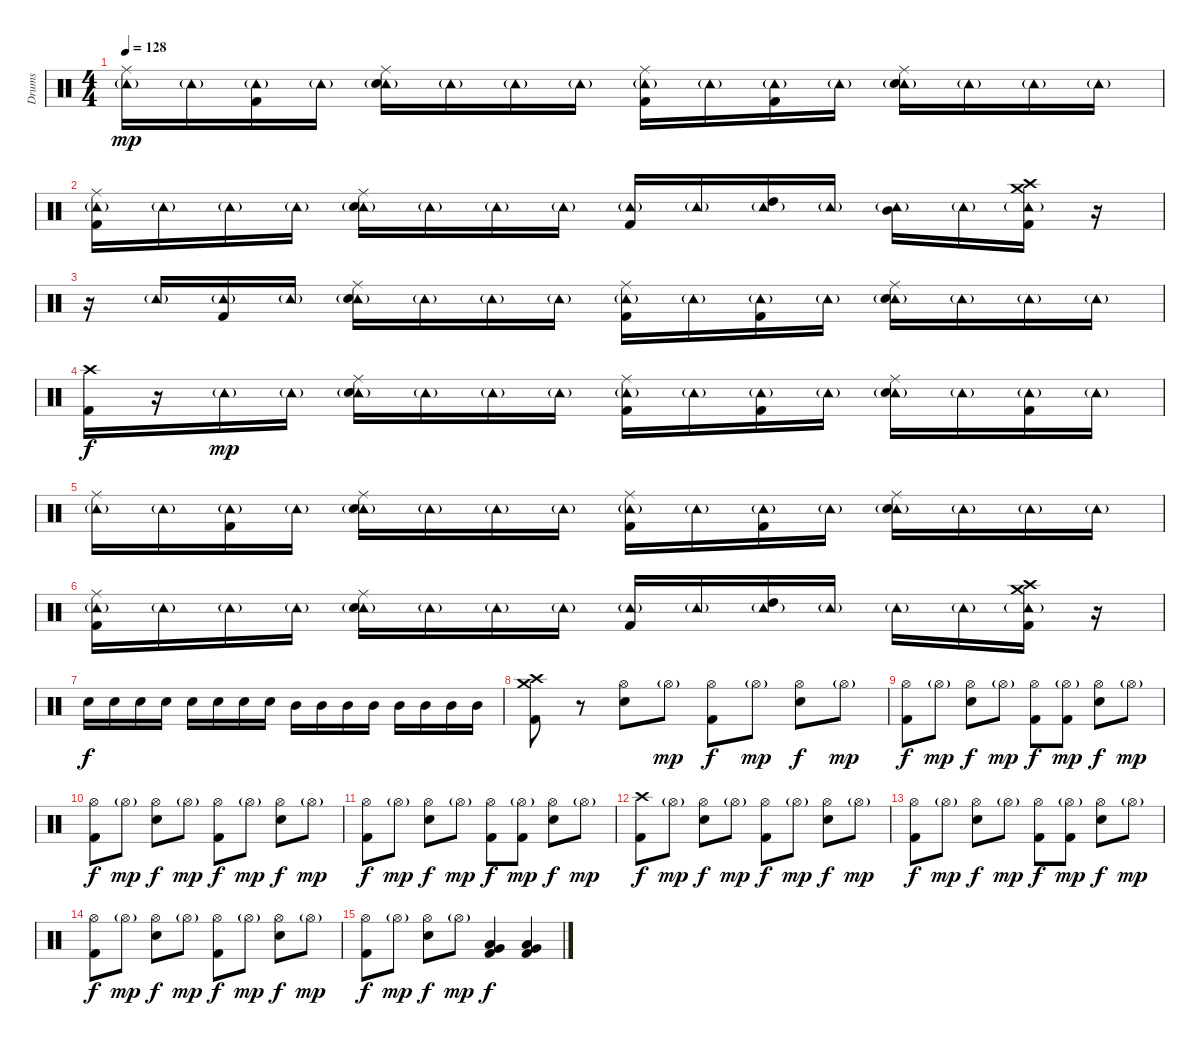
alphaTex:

\track ("Drums" "Drums") {instrument percussion}
\staff {score}
\articulation defaults
\ts (4 4)
\tempo 128
\clef neutral
\ks c
("Ride (middle)" "Tambourine (hit)"{g}).16{dy mp} "Tambourine (hit)"{g}.16 ("Tambourine (hit)"{g} "Kick (hit) 2").16 "Tambourine (hit)"{g}.16 ("Ride (middle)" "Tambourine (hit)"{g} "Electric Snare (hit)").16 "Tambourine (hit)"{g}.16 "Tambourine (hit)"{g}.16 "Tambourine (hit)"{g}.16 ("Ride (middle)" "Tambourine (hit)"{g} "Kick (hit) 2").16 "Tambourine (hit)"{g}.16 ("Tambourine (hit)"{g} "Kick (hit) 2").16 "Tambourine (hit)"{g}.16 ("Ride (middle)" "Tambourine (hit)"{g} "Electric Snare (hit)").16 "Tambourine (hit)"{g}.16 "Tambourine (hit)"{g}.16 "Tambourine (hit)"{g}.16 |
("Ride (middle)" "Tambourine (hit)"{g} "Kick (hit) 2").16 "Tambourine (hit)"{g}.16 "Tambourine (hit)"{g}.16 "Tambourine (hit)"{g}.16 ("Ride (middle)" "Tambourine (hit)"{g} "Electric Snare (hit)").16 "Tambourine (hit)"{g}.16 "Tambourine (hit)"{g}.16 "Tambourine (hit)"{g}.16 ("Tambourine (hit)"{g} "Kick (hit) 2").16 "Tambourine (hit)"{g}.16 ("Tambourine (hit)"{g} "High Tom (hit)").16 "Tambourine (hit)"{g}.16 ("Tambourine (hit)"{g} "Mid Tom (hit)").16 "Tambourine (hit)"{g}.16 ("Crash medium (hit)" "Crash high (hit)" "Tambourine (hit)"{g} "Kick (hit) 2").16 r.16 |
r.16 "Tambourine (hit)"{g}.16 ("Tambourine (hit)"{g} "Kick (hit) 2").16 "Tambourine (hit)"{g}.16 ("Ride (middle)" "Tambourine (hit)"{g} "Electric Snare (hit)").16 "Tambourine (hit)"{g}.16 "Tambourine (hit)"{g}.16 "Tambourine (hit)"{g}.16 ("Ride (middle)" "Tambourine (hit)"{g} "Kick (hit) 2").16 "Tambourine (hit)"{g}.16 ("Tambourine (hit)"{g} "Kick (hit) 2").16 "Tambourine (hit)"{g}.16 ("Ride (middle)" "Tambourine (hit)"{g} "Electric Snare (hit)").16 "Tambourine (hit)"{g}.16 "Tambourine (hit)"{g}.16 "Tambourine (hit)"{g}.16 |
("Crash high (hit)" "Kick (hit) 2").16{dy f} r.16 "Tambourine (hit)"{g}.16{dy mp} "Tambourine (hit)"{g}.16 ("Ride (middle)" "Tambourine (hit)"{g} "Electric Snare (hit)").16 "Tambourine (hit)"{g}.16 "Tambourine (hit)"{g}.16 "Tambourine (hit)"{g}.16 ("Ride (middle)" "Tambourine (hit)"{g} "Kick (hit) 2").16 "Tambourine (hit)"{g}.16 ("Tambourine (hit)"{g} "Kick (hit) 2").16 "Tambourine (hit)"{g}.16 ("Ride (middle)" "Tambourine (hit)"{g} "Electric Snare (hit)").16 "Tambourine (hit)"{g}.16 ("Tambourine (hit)"{g} "Kick (hit) 2").16 "Tambourine (hit)"{g}.16 |
("Ride (middle)" "Tambourine (hit)"{g}).16 "Tambourine (hit)"{g}.16 ("Tambourine (hit)"{g} "Kick (hit) 2").16 "Tambourine (hit)"{g}.16 ("Ride (middle)" "Tambourine (hit)"{g} "Electric Snare (hit)").16 "Tambourine (hit)"{g}.16 "Tambourine (hit)"{g}.16 "Tambourine (hit)"{g}.16 ("Ride (middle)" "Tambourine (hit)"{g} "Kick (hit) 2").16 "Tambourine (hit)"{g}.16 ("Tambourine (hit)"{g} "Kick (hit) 2").16 "Tambourine (hit)"{g}.16 ("Ride (middle)" "Tambourine (hit)"{g} "Electric Snare (hit)").16 "Tambourine (hit)"{g}.16 "Tambourine (hit)"{g}.16 "Tambourine (hit)"{g}.16 |
("Ride (middle)" "Tambourine (hit)"{g} "Kick (hit) 2").16 "Tambourine (hit)"{g}.16 "Tambourine (hit)"{g}.16 "Tambourine (hit)"{g}.16 ("Ride (middle)" "Tambourine (hit)"{g} "Electric Snare (hit)").16 "Tambourine (hit)"{g}.16 "Tambourine (hit)"{g}.16 "Tambourine (hit)"{g}.16 ("Tambourine (hit)"{g} "Kick (hit) 2").16 "Tambourine (hit)"{g}.16 ("Tambourine (hit)"{g} "High Tom (hit)").16 "Tambourine (hit)"{g}.16 "Tambourine (hit)"{g}.16 "Tambourine (hit)"{g}.16 ("Crash medium (hit)" "Crash high (hit)" "Tambourine (hit)"{g} "Kick (hit) 2").16 r.16 |
"Electric Snare (hit)".16{dy f} "Electric Snare (hit)".16 "Electric Snare (hit)".16 "Electric Snare (hit)".16 "Electric Snare (hit)".16 "Electric Snare (hit)".16 "Electric Snare (hit)".16 "Electric Snare (hit)".16 "Mid Tom (hit)".16 "Mid Tom (hit)".16 "Mid Tom (hit)".16 "Mid Tom (hit)".16 "Mid Tom (hit)".16 "Mid Tom (hit)".16 "Mid Tom (hit)".16 "Mid Tom (hit)".16 |
("Crash medium (hit)" "Crash high (hit)" "Kick (hit) 2").8 r.8 ("Hi-Hat (open)" "Electric Snare (hit)").8 "Hi-Hat (open)"{g}.8{dy mp} ("Hi-Hat (open)" "Kick (hit) 2").8{dy f} "Hi-Hat (open)"{g}.8{dy mp} ("Hi-Hat (open)" "Electric Snare (hit)").8{dy f} "Hi-Hat (open)"{g}.8{dy mp} |
("Hi-Hat (open)" "Kick (hit) 2").8{dy f} "Hi-Hat (open)"{g}.8{dy mp} ("Hi-Hat (open)" "Electric Snare (hit)").8{dy f} "Hi-Hat (open)"{g}.8{dy mp} ("Hi-Hat (open)" "Kick (hit) 2").8{dy f} ("Hi-Hat (open)"{g} "Kick (hit) 2").8{dy mp} ("Hi-Hat (open)" "Electric Snare (hit)").8{dy f} "Hi-Hat (open)"{g}.8{dy mp} |
("Hi-Hat (open)" "Kick (hit) 2").8{dy f} "Hi-Hat (open)"{g}.8{dy mp} ("Hi-Hat (open)" "Electric Snare (hit)").8{dy f} "Hi-Hat (open)"{g}.8{dy mp} ("Hi-Hat (open)" "Kick (hit) 2").8{dy f} "Hi-Hat (open)"{g}.8{dy mp} ("Hi-Hat (open)" "Electric Snare (hit)").8{dy f} "Hi-Hat (open)"{g}.8{dy mp} |
("Hi-Hat (open)" "Kick (hit) 2").8{dy f} "Hi-Hat (open)"{g}.8{dy mp} ("Hi-Hat (open)" "Electric Snare (hit)").8{dy f} "Hi-Hat (open)"{g}.8{dy mp} ("Hi-Hat (open)" "Kick (hit) 2").8{dy f} ("Hi-Hat (open)"{g} "Kick (hit) 2").8{dy mp} ("Hi-Hat (open)" "Electric Snare (hit)").8{dy f} "Hi-Hat (open)"{g}.8{dy mp} |
("Crash high (hit)" "Kick (hit) 2").8{dy f} "Hi-Hat (open)"{g}.8{dy mp} ("Hi-Hat (open)" "Electric Snare (hit)").8{dy f} "Hi-Hat (open)"{g}.8{dy mp} ("Hi-Hat (open)" "Kick (hit) 2").8{dy f} "Hi-Hat (open)"{g}.8{dy mp} ("Hi-Hat (open)" "Electric Snare (hit)").8{dy f} "Hi-Hat (open)"{g}.8{dy mp} |
("Hi-Hat (open)" "Kick (hit) 2").8{dy f} "Hi-Hat (open)"{g}.8{dy mp} ("Hi-Hat (open)" "Electric Snare (hit)").8{dy f} "Hi-Hat (open)"{g}.8{dy mp} ("Hi-Hat (open)" "Kick (hit) 2").8{dy f} ("Hi-Hat (open)"{g} "Kick (hit) 2").8{dy mp} ("Hi-Hat (open)" "Electric Snare (hit)").8{dy f} "Hi-Hat (open)"{g}.8{dy mp} |
("Hi-Hat (open)" "Kick (hit) 2").8{dy f} "Hi-Hat (open)"{g}.8{dy mp} ("Hi-Hat (open)" "Electric Snare (hit)").8{dy f} "Hi-Hat (open)"{g}.8{dy mp} ("Hi-Hat (open)" "Kick (hit) 2").8{dy f} "Hi-Hat (open)"{g}.8{dy mp} ("Hi-Hat (open)" "Electric Snare (hit)").8{dy f} "Hi-Hat (open)"{g}.8{dy mp} |
("Hi-Hat (open)" "Kick (hit) 2").8{dy f} "Hi-Hat (open)"{g}.8{dy mp} ("Hi-Hat (open)" "Electric Snare (hit)").8{dy f} "Hi-Hat (open)"{g}.8{dy mp} ("Very Low Tom (hit)" "Low Floor Tom (hit)" "Kick (hit) 2").4{dy f} ("Very Low Tom (hit)" "Low Floor Tom (hit)" "Kick (hit) 2").4
